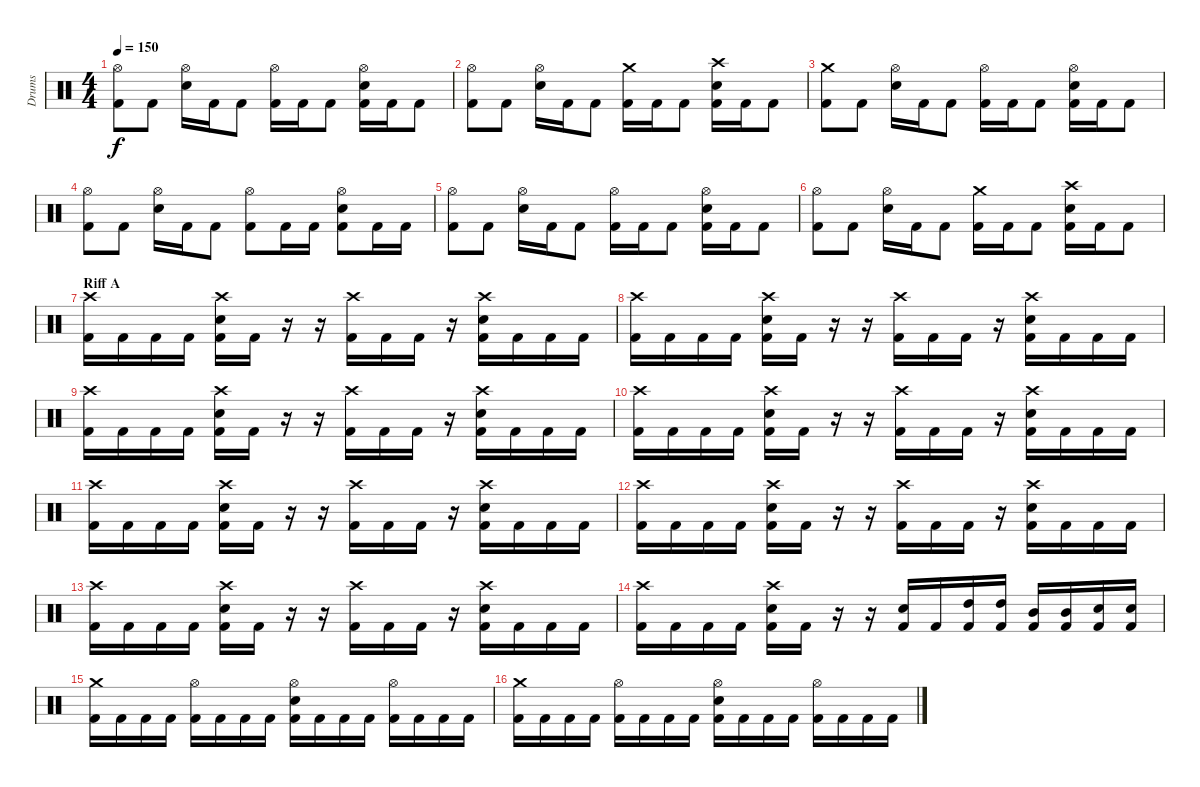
\track ("Drums" "Drums") {instrument percussion}
\staff {score}
\articulation defaults
\ts (4 4)
\tempo 150
\clef neutral
\ks c
("Hi-Hat (open)" "Kick (hit) 2").8{dy f} "Kick (hit) 2".8 ("Hi-Hat (open)" "Electric Snare (hit)").16 "Kick (hit) 2".16 "Kick (hit) 2".8 ("Hi-Hat (open)" "Kick (hit) 2").16 "Kick (hit) 2".16 "Kick (hit) 2".8 ("Hi-Hat (open)" "Electric Snare (hit)" "Kick (hit) 2").16 "Kick (hit) 2".16 "Kick (hit) 2".8 |
("Hi-Hat (open)" "Kick (hit) 2").8 "Kick (hit) 2".8 ("Hi-Hat (open)" "Electric Snare (hit)").16 "Kick (hit) 2".16 "Kick (hit) 2".8 ("Crash medium (hit)" "Kick (hit) 2").16 "Kick (hit) 2".16 "Kick (hit) 2".8 ("Crash high (hit)" "Electric Snare (hit)" "Kick (hit) 2").16 "Kick (hit) 2".16 "Kick (hit) 2".8 |
("Crash medium (hit)" "Kick (hit) 2").8 "Kick (hit) 2".8 ("Hi-Hat (open)" "Electric Snare (hit)").16 "Kick (hit) 2".16 "Kick (hit) 2".8 ("Hi-Hat (open)" "Kick (hit) 2").16 "Kick (hit) 2".16 "Kick (hit) 2".8 ("Hi-Hat (open)" "Electric Snare (hit)" "Kick (hit) 2").16 "Kick (hit) 2".16 "Kick (hit) 2".8 |
("Hi-Hat (open)" "Kick (hit) 2").8 "Kick (hit) 2".8 ("Hi-Hat (open)" "Electric Snare (hit)").16 "Kick (hit) 2".16 "Kick (hit) 2".8 ("Hi-Hat (open)" "Kick (hit) 2").8 "Kick (hit) 2".16 "Kick (hit) 2".16 ("Hi-Hat (open)" "Electric Snare (hit)" "Kick (hit) 2").8 "Kick (hit) 2".16 "Kick (hit) 2".16 |
("Hi-Hat (open)" "Kick (hit) 2").8 "Kick (hit) 2".8 ("Hi-Hat (open)" "Electric Snare (hit)").16 "Kick (hit) 2".16 "Kick (hit) 2".8 ("Hi-Hat (open)" "Kick (hit) 2").16 "Kick (hit) 2".16 "Kick (hit) 2".8 ("Hi-Hat (open)" "Electric Snare (hit)" "Kick (hit) 2").16 "Kick (hit) 2".16 "Kick (hit) 2".8 |
("Hi-Hat (open)" "Kick (hit) 2").8 "Kick (hit) 2".8 ("Hi-Hat (open)" "Electric Snare (hit)").16 "Kick (hit) 2".16 "Kick (hit) 2".8 ("Crash medium (hit)" "Kick (hit) 2").16 "Kick (hit) 2".16 "Kick (hit) 2".8 ("Crash high (hit)" "Electric Snare (hit)" "Kick (hit) 2").16 "Kick (hit) 2".16 "Kick (hit) 2".8 |
\section ("" "Riff A")
("Crash high (hit)" "Kick (hit) 2").16 "Kick (hit) 2".16 "Kick (hit) 2".16 "Kick (hit) 2".16 ("Crash high (hit)" "Electric Snare (hit)" "Kick (hit) 2").16 "Kick (hit) 2".16 r.16 r.16 ("Crash high (hit)" "Kick (hit) 2").16 "Kick (hit) 2".16 "Kick (hit) 2".16 r.16 ("Crash high (hit)" "Electric Snare (hit)" "Kick (hit) 2").16 "Kick (hit) 2".16 "Kick (hit) 2".16 "Kick (hit) 2".16 |
("Crash high (hit)" "Kick (hit) 2").16 "Kick (hit) 2".16 "Kick (hit) 2".16 "Kick (hit) 2".16 ("Crash high (hit)" "Electric Snare (hit)" "Kick (hit) 2").16 "Kick (hit) 2".16 r.16 r.16 ("Crash high (hit)" "Kick (hit) 2").16 "Kick (hit) 2".16 "Kick (hit) 2".16 r.16 ("Crash high (hit)" "Electric Snare (hit)" "Kick (hit) 2").16 "Kick (hit) 2".16 "Kick (hit) 2".16 "Kick (hit) 2".16 |
("Crash high (hit)" "Kick (hit) 2").16 "Kick (hit) 2".16 "Kick (hit) 2".16 "Kick (hit) 2".16 ("Crash high (hit)" "Electric Snare (hit)" "Kick (hit) 2").16 "Kick (hit) 2".16 r.16 r.16 ("Crash high (hit)" "Kick (hit) 2").16 "Kick (hit) 2".16 "Kick (hit) 2".16 r.16 ("Crash high (hit)" "Electric Snare (hit)" "Kick (hit) 2").16 "Kick (hit) 2".16 "Kick (hit) 2".16 "Kick (hit) 2".16 |
("Crash high (hit)" "Kick (hit) 2").16 "Kick (hit) 2".16 "Kick (hit) 2".16 "Kick (hit) 2".16 ("Crash high (hit)" "Electric Snare (hit)" "Kick (hit) 2").16 "Kick (hit) 2".16 r.16 r.16 ("Crash high (hit)" "Kick (hit) 2").16 "Kick (hit) 2".16 "Kick (hit) 2".16 r.16 ("Crash high (hit)" "Electric Snare (hit)" "Kick (hit) 2").16 "Kick (hit) 2".16 "Kick (hit) 2".16 "Kick (hit) 2".16 |
("Crash high (hit)" "Kick (hit) 2").16 "Kick (hit) 2".16 "Kick (hit) 2".16 "Kick (hit) 2".16 ("Crash high (hit)" "Electric Snare (hit)" "Kick (hit) 2").16 "Kick (hit) 2".16 r.16 r.16 ("Crash high (hit)" "Kick (hit) 2").16 "Kick (hit) 2".16 "Kick (hit) 2".16 r.16 ("Crash high (hit)" "Electric Snare (hit)" "Kick (hit) 2").16 "Kick (hit) 2".16 "Kick (hit) 2".16 "Kick (hit) 2".16 |
("Crash high (hit)" "Kick (hit) 2").16 "Kick (hit) 2".16 "Kick (hit) 2".16 "Kick (hit) 2".16 ("Crash high (hit)" "Electric Snare (hit)" "Kick (hit) 2").16 "Kick (hit) 2".16 r.16 r.16 ("Crash high (hit)" "Kick (hit) 2").16 "Kick (hit) 2".16 "Kick (hit) 2".16 r.16 ("Crash high (hit)" "Electric Snare (hit)" "Kick (hit) 2").16 "Kick (hit) 2".16 "Kick (hit) 2".16 "Kick (hit) 2".16 |
("Crash high (hit)" "Kick (hit) 2").16 "Kick (hit) 2".16 "Kick (hit) 2".16 "Kick (hit) 2".16 ("Crash high (hit)" "Electric Snare (hit)" "Kick (hit) 2").16 "Kick (hit) 2".16 r.16 r.16 ("Crash high (hit)" "Kick (hit) 2").16 "Kick (hit) 2".16 "Kick (hit) 2".16 r.16 ("Crash high (hit)" "Electric Snare (hit)" "Kick (hit) 2").16 "Kick (hit) 2".16 "Kick (hit) 2".16 "Kick (hit) 2".16 |
("Crash high (hit)" "Kick (hit) 2").16 "Kick (hit) 2".16 "Kick (hit) 2".16 "Kick (hit) 2".16 ("Crash high (hit)" "Electric Snare (hit)" "Kick (hit) 2").16 "Kick (hit) 2".16 r.16 r.16 ("Electric Snare (hit)" "Kick (hit) 2").16 "Kick (hit) 2".16 ("High Tom (hit)" "Kick (hit) 2").16 ("High Tom (hit)" "Kick (hit) 2").16 ("Mid Tom (hit)" "Kick (hit) 2").16 ("Mid Tom (hit)" "Kick (hit) 2").16 ("Electric Snare (hit)" "Kick (hit) 2").16 ("Electric Snare (hit)" "Kick (hit) 2").16 |
("Crash medium (hit)" "Kick (hit) 2").16 "Kick (hit) 2".16 "Kick (hit) 2".16 "Kick (hit) 2".16 ("Hi-Hat (open)" "Kick (hit) 2").16 "Kick (hit) 2".16 "Kick (hit) 2".16 "Kick (hit) 2".16 ("Hi-Hat (open)" "Electric Snare (hit)" "Kick (hit) 2").16 "Kick (hit) 2".16 "Kick (hit) 2".16 "Kick (hit) 2".16 ("Hi-Hat (open)" "Kick (hit) 2").16 "Kick (hit) 2".16 "Kick (hit) 2".16 "Kick (hit) 2".16 |
("Crash medium (hit)" "Kick (hit) 2").16 "Kick (hit) 2".16 "Kick (hit) 2".16 "Kick (hit) 2".16 ("Hi-Hat (open)" "Kick (hit) 2").16 "Kick (hit) 2".16 "Kick (hit) 2".16 "Kick (hit) 2".16 ("Hi-Hat (open)" "Electric Snare (hit)" "Kick (hit) 2").16 "Kick (hit) 2".16 "Kick (hit) 2".16 "Kick (hit) 2".16 ("Hi-Hat (open)" "Kick (hit) 2").16 "Kick (hit) 2".16 "Kick (hit) 2".16 "Kick (hit) 2".16
